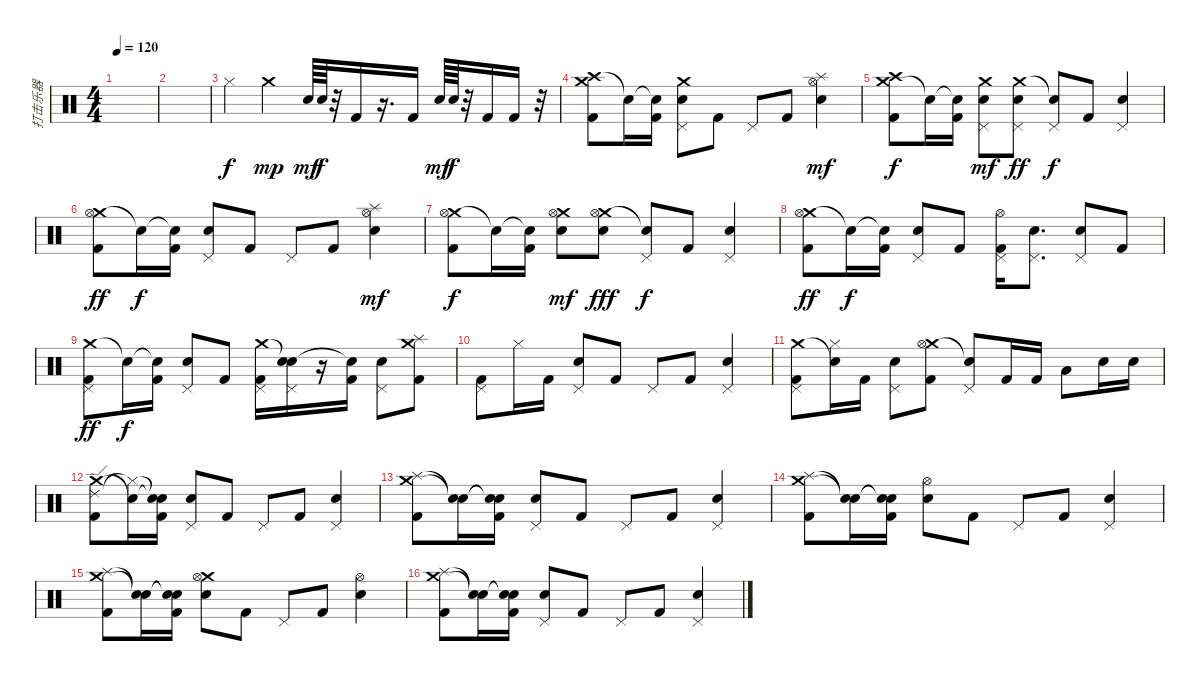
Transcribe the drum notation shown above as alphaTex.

\track ("打击乐器" "打击乐器") {instrument percussion}
\staff {score}
\articulation defaults
\ts (4 4)
\tempo 120
\clef neutral
\ks c
|
|
"Hi-Hat (closed)".4 "Crash medium (hit)".4{dy mp} "Electric Snare (hit)".64{dy mf} "Electric Snare (hit)".64{dy f} r.32 "Kick (hit) 2".16 r.16{d} "Kick (hit) 2".16 "Electric Snare (hit)".64{dy mf} "Electric Snare (hit)".64{dy f} r.32 "Kick (hit) 2".16 "Kick (hit) 2".16 r.32 |
("Crash high (hit)" "Crash medium (hit)" "Kick (hit) 2").8 "Snare (hit)"{t}.16 ("Snare (hit)"{t} "Kick (hit) 2").16 ("Crash medium (hit)" "Pedal Hi-Hat (hit)" "Metronome (bell)").8 "Kick (hit) 2".8 "Pedal Hi-Hat (hit)".8 "Kick (hit) 2".8 ("Splash (hit)" "Hi-Hat (open)" "Metronome (bell)").4{dy mf} |
("Crash medium (hit)" "Crash high (hit)" "Kick (hit) 2").8{dy f} "Snare (hit)"{t}.16 ("Snare (hit)"{t} "Kick (hit) 2").16 ("Crash medium (hit)" "Pedal Hi-Hat (hit)" "Metronome (bell)").8{dy mf} ("Crash medium (hit)" "Pedal Hi-Hat (hit)" "Metronome (bell)").8{dy ff} ("Snare (hit)"{t} "Pedal Hi-Hat (hit)").8{dy f} "Kick (hit) 2".8 ("Pedal Hi-Hat (hit)" "Metronome (bell)").4 |
("Crash medium (hit)" "Hi-Hat (open)" "Kick (hit) 2").8{dy ff} "Snare (hit)"{t}.16{dy f} ("Snare (hit)"{t} "Kick (hit) 2").16 ("Pedal Hi-Hat (hit)" "Metronome (bell)").8 "Kick (hit) 2".8 "Pedal Hi-Hat (hit)".8 "Kick (hit) 2".8 ("Splash (hit)" "Hi-Hat (open)" "Metronome (bell)").4{dy mf} |
("Crash medium (hit)" "Hi-Hat (open)" "Kick (hit) 2").8{dy f} "Snare (hit)"{t}.16 ("Snare (hit)"{t} "Kick (hit) 2").16 ("Crash medium (hit)" "Hi-Hat (open)" "Metronome (bell)").8{dy mf} ("Crash medium (hit)" "Hi-Hat (open)" "Metronome (bell)").8{dy fff} ("Snare (hit)"{t} "Pedal Hi-Hat (hit)").8{dy f} "Kick (hit) 2".8 ("Pedal Hi-Hat (hit)" "Metronome (bell)").4 |
("Crash medium (hit)" "Hi-Hat (open)" "Kick (hit) 2").8{dy ff} "Snare (hit)"{t}.16{dy f} ("Snare (hit)"{t} "Kick (hit) 2").16 ("Pedal Hi-Hat (hit)" "Metronome (bell)").8 "Kick (hit) 2".8 ("Hi-Hat (open)" "Pedal Hi-Hat (hit)" "Kick (hit) 2").16 ("Pedal Hi-Hat (hit)" "Metronome (bell)").8{d} ("Pedal Hi-Hat (hit)" "Metronome (bell)").8 "Kick (hit) 2".8 |
("Crash medium (hit)" "Pedal Hi-Hat (hit)" "Kick (hit) 2").8{dy ff} "Snare (hit)"{t}.16{dy f} ("Snare (hit)"{t} "Kick (hit) 2").16 ("Pedal Hi-Hat (hit)" "Metronome (bell)").8 "Kick (hit) 2".8 ("Crash medium (hit)" "Pedal Hi-Hat (hit)" "Kick (hit) 2").16 ("Snare (hit)"{t} "Pedal Hi-Hat (hit)" "Metronome (bell)").16 r.16 ("Snare (hit)"{t} "Kick (hit) 2").16 ("Pedal Hi-Hat (hit)" "Metronome (bell)").8 ("Crash medium (hit)" "Splash (hit)" "Kick (hit) 2").8 |
("Pedal Hi-Hat (hit)" "Kick (hit) 2").8 "Hi-Hat (closed)".16 "Kick (hit) 2".16 ("Pedal Hi-Hat (hit)" "Metronome (bell)").8 "Kick (hit) 2".8 "Pedal Hi-Hat (hit)".8 "Kick (hit) 2".8 ("Pedal Hi-Hat (hit)" "Metronome (bell)").4 |
("Crash medium (hit)" "Pedal Hi-Hat (hit)" "Kick (hit) 2").8 ("Snare (hit)"{t} "Hi-Hat (closed)").16 "Kick (hit) 2".16 ("Pedal Hi-Hat (hit)" "Metronome (bell)").8 ("Crash medium (hit)" "Hi-Hat (open)" "Kick (hit) 2").8 ("Snare (hit)"{t} "Pedal Hi-Hat (hit)").8 "Kick (hit) 2".16 "Kick (hit) 2".16 "Low Floor Tom (hit)".8 "Metronome (bell)".16 "Metronome (bell)".16 |
("Crash medium (hit)" "Ride (edge) 2" "Kick (hit) 2").8 ("Snare (hit)"{t} "Hi-Hat (closed)"{t}).16 ("Snare (hit)"{t} "Snare (hit)"{t} "Kick (hit) 2").16 ("Pedal Hi-Hat (hit)" "Metronome (bell)").8 "Kick (hit) 2".8 "Pedal Hi-Hat (hit)".8 "Kick (hit) 2".8 ("Pedal Hi-Hat (hit)" "Metronome (bell)").4 |
("Crash medium (hit)" "Splash (hit)" "Kick (hit) 2").8 ("Snare (hit)"{t} "Snare (hit)"{t}).16 ("Snare (hit)"{t} "Snare (hit)"{t} "Kick (hit) 2").16 ("Pedal Hi-Hat (hit)" "Metronome (bell)").8 "Kick (hit) 2".8 "Pedal Hi-Hat (hit)".8 "Kick (hit) 2".8 ("Pedal Hi-Hat (hit)" "Metronome (bell)").4 |
("Crash medium (hit)" "Splash (hit)" "Kick (hit) 2").8 ("Snare (hit)"{t} "Snare (hit)"{t}).16 ("Snare (hit)"{t} "Snare (hit)"{t} "Kick (hit) 2").16 ("Hi-Hat (open)" "Metronome (bell)").8 "Kick (hit) 2".8 "Pedal Hi-Hat (hit)".8 "Kick (hit) 2".8 ("Pedal Hi-Hat (hit)" "Metronome (bell)").4 |
("Crash medium (hit)" "Splash (hit)" "Kick (hit) 2").8 ("Snare (hit)"{t} "Snare (hit)"{t}).16 ("Snare (hit)"{t} "Snare (hit)"{t} "Kick (hit) 2").16 ("Crash medium (hit)" "Hi-Hat (open)" "Metronome (bell)").8 "Kick (hit) 2".8 "Pedal Hi-Hat (hit)".8 "Kick (hit) 2".8 ("Hi-Hat (open)" "Metronome (bell)").4 |
("Crash medium (hit)" "Splash (hit)" "Kick (hit) 2").8 ("Snare (hit)"{t} "Snare (hit)"{t}).16 ("Snare (hit)"{t} "Snare (hit)"{t} "Kick (hit) 2").16 ("Pedal Hi-Hat (hit)" "Metronome (bell)").8 "Kick (hit) 2".8 "Pedal Hi-Hat (hit)".8 "Kick (hit) 2".8 ("Pedal Hi-Hat (hit)" "Metronome (bell)").4
